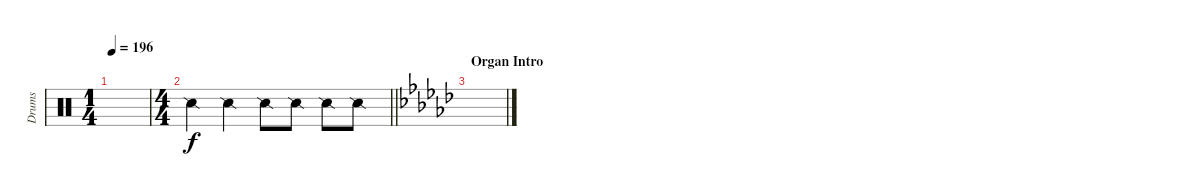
\track ("Drums" "Drums") {instrument percussion}
\staff {score}
\articulation defaults
\ts (1 4)
\tempo 196
\clef neutral
\ks c
|
\ts (4 4)
\barLineRight lightlight "Snare (side stick) 2".4 "Snare (side stick) 2".4 "Snare (side stick) 2".8 "Snare (side stick) 2".8 "Snare (side stick) 2".8 "Snare (side stick) 2".8
|
\section ("" "Organ Intro")
\ks gb
